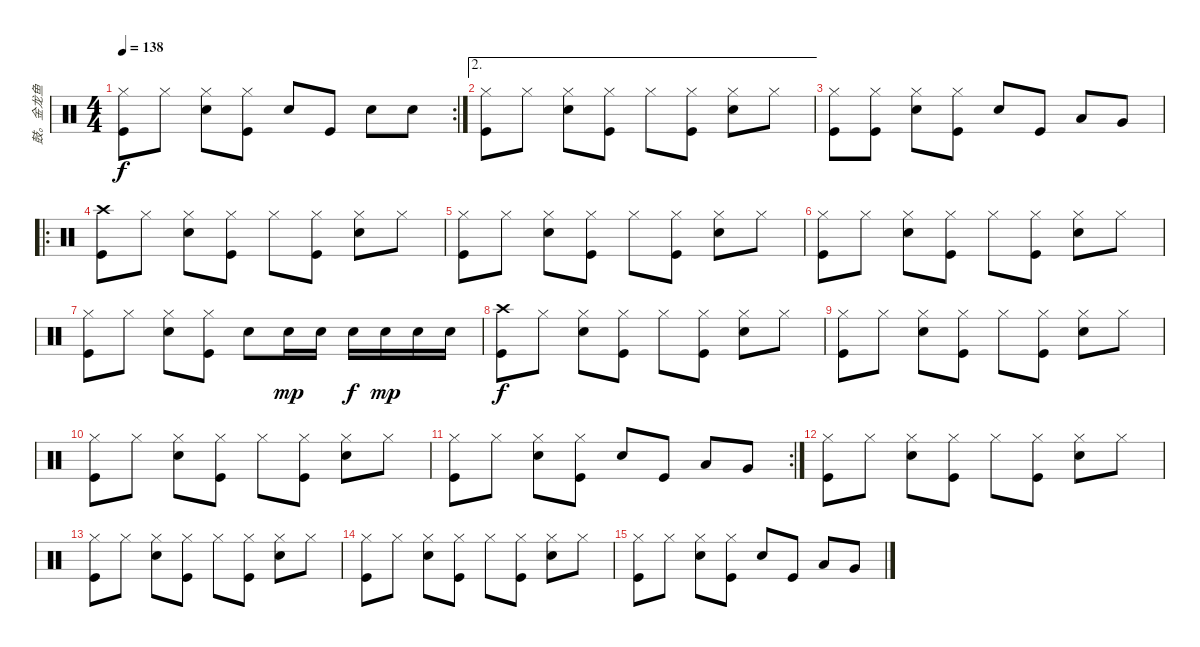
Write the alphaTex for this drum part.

\track ("鼓。金龙鱼" "鼓。金龙鱼") {instrument percussion}
\staff {score}
\articulation defaults
\rc 2
\ts (4 4)
\tempo 138
\clef neutral
\ks c
("Hi-Hat (closed)" "Kick (hit)").8{dy f} "Hi-Hat (closed)".8 ("Hi-Hat (closed)" "Snare (hit) 2").8 ("Hi-Hat (closed)" "Kick (hit)").8 "Snare (hit) 2".8 "Kick (hit)".8 "Snare (hit) 2".8 "Snare (hit) 2".8 |
\ae 2
("Hi-Hat (closed)" "Kick (hit)").8 "Hi-Hat (closed)".8 ("Hi-Hat (closed)" "Snare (hit) 2").8 ("Hi-Hat (closed)" "Kick (hit)").8 "Hi-Hat (closed)".8 ("Hi-Hat (closed)" "Kick (hit)").8 ("Hi-Hat (closed)" "Snare (hit) 2").8 "Hi-Hat (closed)".8 |
("Hi-Hat (closed)" "Kick (hit)").8 ("Hi-Hat (closed)" "Kick (hit)").8 ("Hi-Hat (closed)" "Snare (hit) 2").8 ("Hi-Hat (closed)" "Kick (hit)").8 "Snare (hit) 2".8 "Kick (hit)".8 "Low Tom (hit)".8 "Very Low Tom (hit)".8 |
\ro
("Crash high (hit)" "Kick (hit)").8 "Hi-Hat (closed)".8 ("Hi-Hat (closed)" "Snare (hit) 2").8 ("Hi-Hat (closed)" "Kick (hit)").8 "Hi-Hat (closed)".8 ("Hi-Hat (closed)" "Kick (hit)").8 ("Hi-Hat (closed)" "Snare (hit) 2").8 "Hi-Hat (closed)".8 |
("Hi-Hat (closed)" "Kick (hit)").8 "Hi-Hat (closed)".8 ("Hi-Hat (closed)" "Snare (hit) 2").8 ("Hi-Hat (closed)" "Kick (hit)").8 "Hi-Hat (closed)".8 ("Hi-Hat (closed)" "Kick (hit)").8 ("Hi-Hat (closed)" "Snare (hit) 2").8 "Hi-Hat (closed)".8 |
("Hi-Hat (closed)" "Kick (hit)").8 "Hi-Hat (closed)".8 ("Hi-Hat (closed)" "Snare (hit) 2").8 ("Hi-Hat (closed)" "Kick (hit)").8 "Hi-Hat (closed)".8 ("Hi-Hat (closed)" "Kick (hit)").8 ("Hi-Hat (closed)" "Snare (hit) 2").8 "Hi-Hat (closed)".8 |
("Hi-Hat (closed)" "Kick (hit)").8 "Hi-Hat (closed)".8 ("Hi-Hat (closed)" "Snare (hit) 2").8 ("Hi-Hat (closed)" "Kick (hit)").8 "Snare (hit) 2".8 "Snare (hit) 2".16{dy mp} "Snare (hit) 2".16 "Snare (hit) 2".16{dy f} "Snare (hit) 2".16{dy mp} "Snare (hit) 2".16 "Snare (hit) 2".16 |
("Crash high (hit)" "Kick (hit)").8{dy f} "Hi-Hat (closed)".8 ("Hi-Hat (closed)" "Snare (hit) 2").8 ("Hi-Hat (closed)" "Kick (hit)").8 "Hi-Hat (closed)".8 ("Hi-Hat (closed)" "Kick (hit)").8 ("Hi-Hat (closed)" "Snare (hit) 2").8 "Hi-Hat (closed)".8 |
("Hi-Hat (closed)" "Kick (hit)").8 "Hi-Hat (closed)".8 ("Hi-Hat (closed)" "Snare (hit) 2").8 ("Hi-Hat (closed)" "Kick (hit)").8 "Hi-Hat (closed)".8 ("Hi-Hat (closed)" "Kick (hit)").8 ("Hi-Hat (closed)" "Snare (hit) 2").8 "Hi-Hat (closed)".8 |
("Hi-Hat (closed)" "Kick (hit)").8 "Hi-Hat (closed)".8 ("Hi-Hat (closed)" "Snare (hit) 2").8 ("Hi-Hat (closed)" "Kick (hit)").8 "Hi-Hat (closed)".8 ("Hi-Hat (closed)" "Kick (hit)").8 ("Hi-Hat (closed)" "Snare (hit) 2").8 "Hi-Hat (closed)".8 |
\rc 2
("Hi-Hat (closed)" "Kick (hit)").8 "Hi-Hat (closed)".8 ("Hi-Hat (closed)" "Snare (hit) 2").8 ("Hi-Hat (closed)" "Kick (hit)").8 "Snare (hit) 2".8 "Kick (hit)".8 "Low Tom (hit)".8 "Very Low Tom (hit)".8 |
("Hi-Hat (closed)" "Kick (hit)").8{volume 14} "Hi-Hat (closed)".8 ("Hi-Hat (closed)" "Snare (hit) 2").8 ("Hi-Hat (closed)" "Kick (hit)").8 "Hi-Hat (closed)".8{volume 12} ("Hi-Hat (closed)" "Kick (hit)").8 ("Hi-Hat (closed)" "Snare (hit) 2").8 "Hi-Hat (closed)".8 |
("Hi-Hat (closed)" "Kick (hit)").8{volume 10} "Hi-Hat (closed)".8 ("Hi-Hat (closed)" "Snare (hit) 2").8 ("Hi-Hat (closed)" "Kick (hit)").8 "Hi-Hat (closed)".8{volume 8} ("Hi-Hat (closed)" "Kick (hit)").8 ("Hi-Hat (closed)" "Snare (hit) 2").8 "Hi-Hat (closed)".8 |
("Hi-Hat (closed)" "Kick (hit)").8{volume 6} "Hi-Hat (closed)".8 ("Hi-Hat (closed)" "Snare (hit) 2").8 ("Hi-Hat (closed)" "Kick (hit)").8 "Hi-Hat (closed)".8{volume 5} ("Hi-Hat (closed)" "Kick (hit)").8 ("Hi-Hat (closed)" "Snare (hit) 2").8 "Hi-Hat (closed)".8 |
("Hi-Hat (closed)" "Kick (hit)").8{volume 3} "Hi-Hat (closed)".8 ("Hi-Hat (closed)" "Snare (hit) 2").8 ("Hi-Hat (closed)" "Kick (hit)").8 "Snare (hit) 2".8{volume 2} "Kick (hit)".8 "Low Tom (hit)".8 "Very Low Tom (hit)".8
